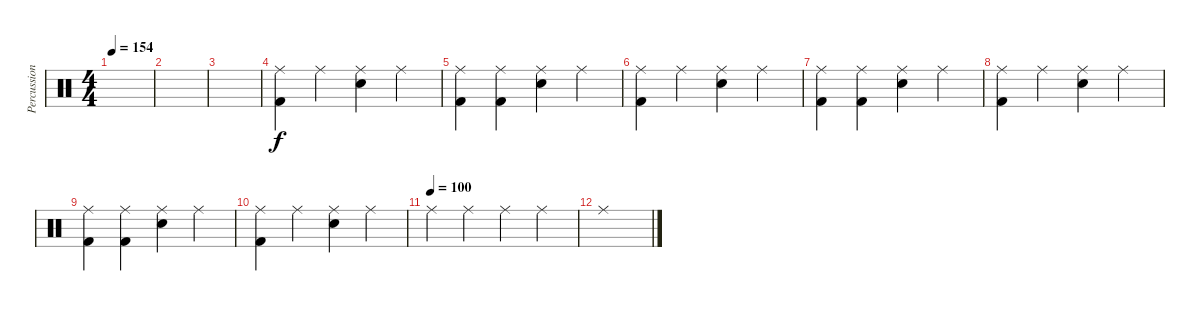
\track ("Percussion" "Percussion") {instrument percussion}
\staff {score}
\articulation defaults
\ts (4 4)
\tempo 154
\clef neutral
\ks c
|
|
|
("Ride (middle)" "Kick (hit) 2").4 "Ride (middle)".4 ("Ride (middle)" "Electric Snare (hit)").4 "Ride (middle)".4 |
("Ride (middle)" "Kick (hit) 2").4 ("Ride (middle)" "Kick (hit) 2").4 ("Ride (middle)" "Electric Snare (hit)").4 "Ride (middle)".4 |
("Ride (middle)" "Kick (hit) 2").4 "Ride (middle)".4 ("Ride (middle)" "Electric Snare (hit)").4 "Ride (middle)".4 |
("Ride (middle)" "Kick (hit) 2").4 ("Ride (middle)" "Kick (hit) 2").4 ("Ride (middle)" "Electric Snare (hit)").4 "Ride (middle)".4 |
("Ride (middle)" "Kick (hit) 2").4 "Ride (middle)".4 ("Ride (middle)" "Electric Snare (hit)").4 "Ride (middle)".4 |
("Ride (middle)" "Kick (hit) 2").4 ("Ride (middle)" "Kick (hit) 2").4 ("Ride (middle)" "Electric Snare (hit)").4 "Ride (middle)".4 |
("Ride (middle)" "Kick (hit) 2").4 "Ride (middle)".4 ("Ride (middle)" "Electric Snare (hit)").4 "Ride (middle)".4 |
\tempo (100)
"Ride (middle)".4 "Ride (middle)".4 "Ride (middle)".4 "Ride (middle)".4 |
"Ride (middle)".1
